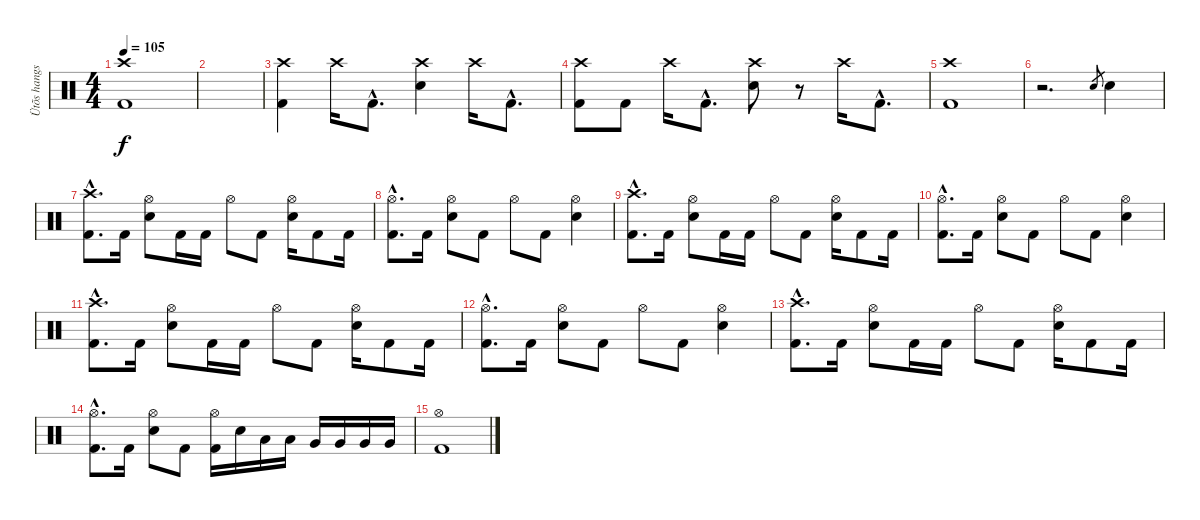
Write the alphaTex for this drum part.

\track ("Ütõs hangszer" "Ütõs hangs") {instrument percussion}
\staff {score}
\articulation defaults
\ts (4 4)
\tempo 105
\clef neutral
\ks c
("Crash high (hit)" "Kick (hit) 2").1{dy f} |
|
("Crash high (hit)" "Kick (hit) 2").4 "Crash high (hit)".16 "Kick (hit) 2"{hac}.8{d} ("Crash high (hit)" "Snare (hit) 2").4 "Crash high (hit)".16 "Kick (hit) 2"{hac}.8{d} |
("Crash high (hit)" "Kick (hit) 2").8 "Kick (hit) 2".8 "Crash high (hit)".16 "Kick (hit) 2"{hac}.8{d} ("Crash high (hit)" "Snare (hit) 2").8 r.8 "Crash high (hit)".16 "Kick (hit) 2"{hac}.8{d} |
("Crash high (hit)" "Kick (hit) 2").1 |
r.2{d} "Snare (hit) 2".8{gr} "Snare (hit) 2".4 |
("Crash high (hit)"{hac} "Kick (hit) 2"{hac}).8{d} "Kick (hit) 2".16 ("Hi-Hat (open)" "Snare (hit) 2").8 "Kick (hit) 2".16 "Kick (hit) 2".16 "Hi-Hat (open)".8 "Kick (hit) 2".8 ("Hi-Hat (open)" "Snare (hit) 2").16 "Kick (hit) 2".8 "Kick (hit) 2".16 |
("Hi-Hat (open)"{hac} "Kick (hit) 2"{hac}).8{d} "Kick (hit) 2".16 ("Hi-Hat (open)" "Snare (hit) 2").8 "Kick (hit) 2".8 "Hi-Hat (open)".8 "Kick (hit) 2".8 ("Hi-Hat (open)" "Snare (hit) 2").4 |
("Crash high (hit)"{hac} "Kick (hit) 2"{hac}).8{d} "Kick (hit) 2".16 ("Hi-Hat (open)" "Snare (hit) 2").8 "Kick (hit) 2".16 "Kick (hit) 2".16 "Hi-Hat (open)".8 "Kick (hit) 2".8 ("Hi-Hat (open)" "Snare (hit) 2").16 "Kick (hit) 2".8 "Kick (hit) 2".16 |
("Hi-Hat (open)"{hac} "Kick (hit) 2"{hac}).8{d} "Kick (hit) 2".16 ("Hi-Hat (open)" "Snare (hit) 2").8 "Kick (hit) 2".8 "Hi-Hat (open)".8 "Kick (hit) 2".8 ("Hi-Hat (open)" "Snare (hit) 2").4 |
("Crash high (hit)"{hac} "Kick (hit) 2"{hac}).8{d} "Kick (hit) 2".16 ("Hi-Hat (open)" "Snare (hit) 2").8 "Kick (hit) 2".16 "Kick (hit) 2".16 "Hi-Hat (open)".8 "Kick (hit) 2".8 ("Hi-Hat (open)" "Snare (hit) 2").16 "Kick (hit) 2".8 "Kick (hit) 2".16 |
("Hi-Hat (open)"{hac} "Kick (hit) 2"{hac}).8{d} "Kick (hit) 2".16 ("Hi-Hat (open)" "Snare (hit) 2").8 "Kick (hit) 2".8 "Hi-Hat (open)".8 "Kick (hit) 2".8 ("Hi-Hat (open)" "Snare (hit) 2").4 |
("Crash high (hit)"{hac} "Kick (hit) 2"{hac}).8{d} "Kick (hit) 2".16 ("Hi-Hat (open)" "Snare (hit) 2").8 "Kick (hit) 2".16 "Kick (hit) 2".16 "Hi-Hat (open)".8 "Kick (hit) 2".8 ("Hi-Hat (open)" "Snare (hit) 2").16 "Kick (hit) 2".8 "Kick (hit) 2".16 |
("Hi-Hat (open)"{hac} "Kick (hit) 2"{hac}).8{d} "Kick (hit) 2".16 ("Hi-Hat (open)" "Snare (hit) 2").8 "Kick (hit) 2".8 ("Hi-Hat (open)" "Kick (hit) 2").16 "Snare (hit) 2".16 "Low Tom (hit)".16 "Low Tom (hit)".16 "Very Low Tom (hit)".16 "Very Low Tom (hit)".16 "Very Low Tom (hit)".16 "Very Low Tom (hit)".16 |
("Hi-Hat (open)" "Kick (hit) 2").1
